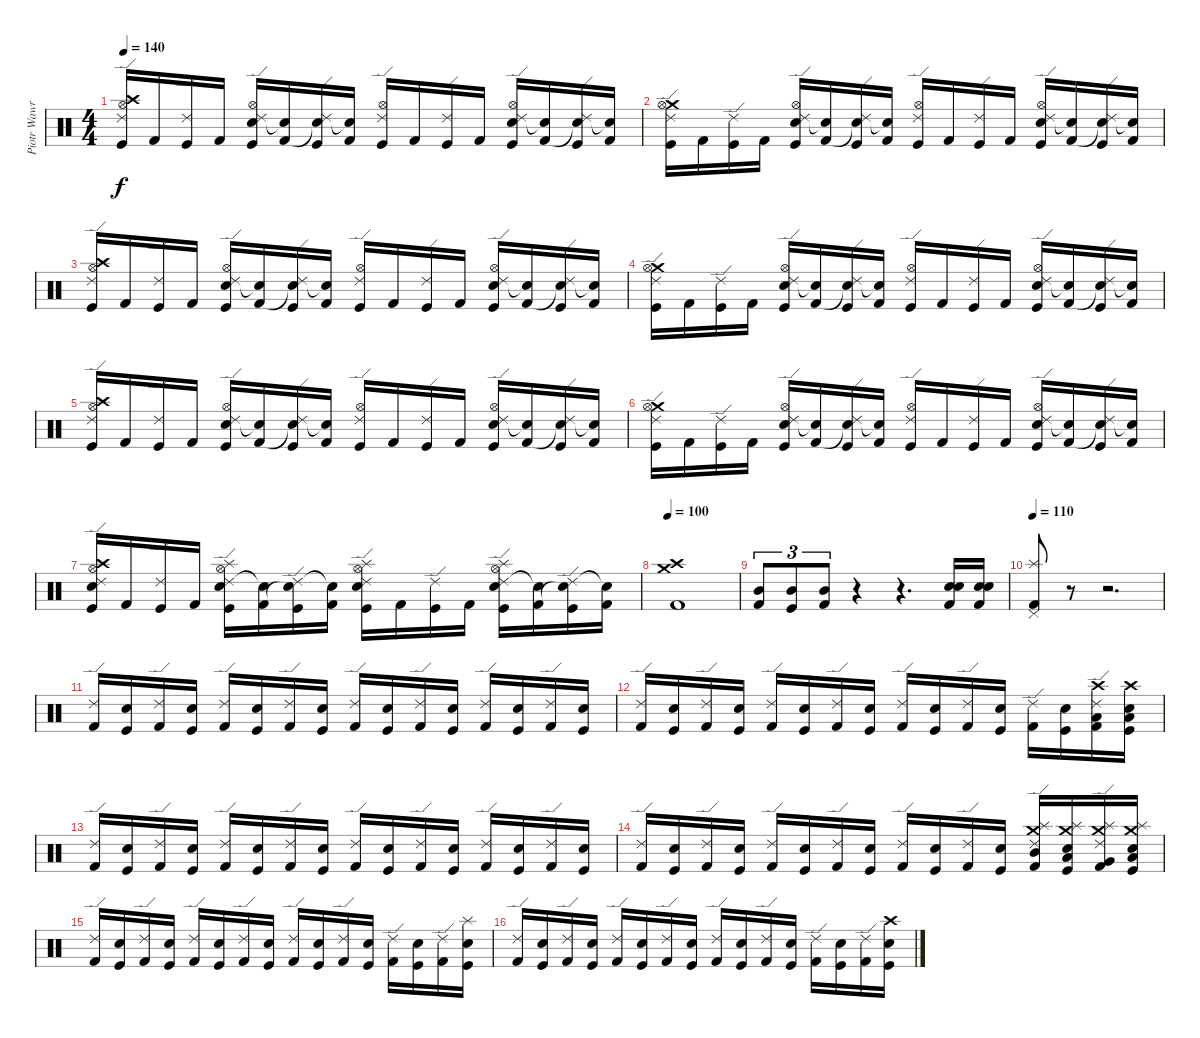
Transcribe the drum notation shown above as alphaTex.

\track ("Piotr Wawrzeniuk" "Piotr Wawr") {instrument percussion}
\staff {score}
\articulation defaults
\ts (4 4)
\tempo 140
\clef neutral
\ks c
("Ride (edge) 2" "Crash high (hit)" "Hi-Hat (open)" "Kick (hit)").16{dy f} "Kick (hit) 2".16 ("Ride (edge) 2" "Kick (hit)").16 "Kick (hit) 2".16 ("Ride (edge) 2" "Electric Snare (hit)" "Hi-Hat (open)" "Kick (hit)").16 ("Snare (hit)"{t} "Kick (hit) 2").16 ("Ride (edge) 2" "Electric Snare (hit)"{t} "Kick (hit)").16 ("Snare (hit)"{t} "Kick (hit) 2").16 ("Ride (edge) 2" "Hi-Hat (open)" "Kick (hit)").16 "Kick (hit) 2".16 ("Ride (edge) 2" "Kick (hit)").16 "Kick (hit) 2".16 ("Ride (edge) 2" "Electric Snare (hit)" "Hi-Hat (open)" "Kick (hit)").16 ("Snare (hit)"{t} "Kick (hit) 2").16 ("Ride (edge) 2" "Electric Snare (hit)"{t} "Kick (hit)").16 ("Snare (hit)"{t} "Kick (hit) 2").16 |
("Ride (edge) 2" "Crash medium (hit)" "Hi-Hat (open)" "Kick (hit)").16 "Kick (hit) 2".16 ("Ride (edge) 2" "Kick (hit)").16 "Kick (hit) 2".16 ("Ride (edge) 2" "Electric Snare (hit)" "Hi-Hat (open)" "Kick (hit)").16 ("Snare (hit)"{t} "Kick (hit) 2").16 ("Ride (edge) 2" "Electric Snare (hit)"{t} "Kick (hit)").16 ("Snare (hit)"{t} "Kick (hit) 2").16 ("Ride (edge) 2" "Hi-Hat (open)" "Kick (hit)").16 "Kick (hit) 2".16 ("Ride (edge) 2" "Kick (hit)").16 "Kick (hit) 2".16 ("Ride (edge) 2" "Electric Snare (hit)" "Hi-Hat (open)" "Kick (hit)").16 ("Snare (hit)"{t} "Kick (hit) 2").16 ("Ride (edge) 2" "Electric Snare (hit)"{t} "Kick (hit)").16 ("Snare (hit)"{t} "Kick (hit) 2").16 |
("Ride (edge) 2" "Crash high (hit)" "Hi-Hat (open)" "Kick (hit)").16 "Kick (hit) 2".16 ("Ride (edge) 2" "Kick (hit)").16 "Kick (hit) 2".16 ("Ride (edge) 2" "Electric Snare (hit)" "Hi-Hat (open)" "Kick (hit)").16 ("Snare (hit)"{t} "Kick (hit) 2").16 ("Ride (edge) 2" "Electric Snare (hit)"{t} "Kick (hit)").16 ("Snare (hit)"{t} "Kick (hit) 2").16 ("Ride (edge) 2" "Hi-Hat (open)" "Kick (hit)").16 "Kick (hit) 2".16 ("Ride (edge) 2" "Kick (hit)").16 "Kick (hit) 2".16 ("Ride (edge) 2" "Electric Snare (hit)" "Hi-Hat (open)" "Kick (hit)").16 ("Snare (hit)"{t} "Kick (hit) 2").16 ("Ride (edge) 2" "Electric Snare (hit)"{t} "Kick (hit)").16 ("Snare (hit)"{t} "Kick (hit) 2").16 |
("Ride (edge) 2" "Crash medium (hit)" "Hi-Hat (open)" "Kick (hit)").16 "Kick (hit) 2".16 ("Ride (edge) 2" "Kick (hit)").16 "Kick (hit) 2".16 ("Ride (edge) 2" "Electric Snare (hit)" "Hi-Hat (open)" "Kick (hit)").16 ("Snare (hit)"{t} "Kick (hit) 2").16 ("Ride (edge) 2" "Electric Snare (hit)"{t} "Kick (hit)").16 ("Snare (hit)"{t} "Kick (hit) 2").16 ("Ride (edge) 2" "Hi-Hat (open)" "Kick (hit)").16 "Kick (hit) 2".16 ("Ride (edge) 2" "Kick (hit)").16 "Kick (hit) 2".16 ("Ride (edge) 2" "Electric Snare (hit)" "Hi-Hat (open)" "Kick (hit)").16 ("Snare (hit)"{t} "Kick (hit) 2").16 ("Ride (edge) 2" "Electric Snare (hit)"{t} "Kick (hit)").16 ("Snare (hit)"{t} "Kick (hit) 2").16 |
("Ride (edge) 2" "Crash high (hit)" "Hi-Hat (open)" "Kick (hit)").16 "Kick (hit) 2".16 ("Ride (edge) 2" "Kick (hit)").16 "Kick (hit) 2".16 ("Ride (edge) 2" "Electric Snare (hit)" "Hi-Hat (open)" "Kick (hit)").16 ("Snare (hit)"{t} "Kick (hit) 2").16 ("Ride (edge) 2" "Electric Snare (hit)"{t} "Kick (hit)").16 ("Snare (hit)"{t} "Kick (hit) 2").16 ("Ride (edge) 2" "Hi-Hat (open)" "Kick (hit)").16 "Kick (hit) 2".16 ("Ride (edge) 2" "Kick (hit)").16 "Kick (hit) 2".16 ("Ride (edge) 2" "Electric Snare (hit)" "Hi-Hat (open)" "Kick (hit)").16 ("Snare (hit)"{t} "Kick (hit) 2").16 ("Ride (edge) 2" "Electric Snare (hit)"{t} "Kick (hit)").16 ("Snare (hit)"{t} "Kick (hit) 2").16 |
("Ride (edge) 2" "Crash medium (hit)" "Hi-Hat (open)" "Kick (hit)").16 "Kick (hit) 2".16 ("Ride (edge) 2" "Kick (hit)").16 "Kick (hit) 2".16 ("Ride (edge) 2" "Electric Snare (hit)" "Hi-Hat (open)" "Kick (hit)").16 ("Snare (hit)"{t} "Kick (hit) 2").16 ("Ride (edge) 2" "Electric Snare (hit)"{t} "Kick (hit)").16 ("Snare (hit)"{t} "Kick (hit) 2").16 ("Ride (edge) 2" "Hi-Hat (open)" "Kick (hit)").16 "Kick (hit) 2".16 ("Ride (edge) 2" "Kick (hit)").16 "Kick (hit) 2".16 ("Ride (edge) 2" "Electric Snare (hit)" "Hi-Hat (open)" "Kick (hit)").16 ("Snare (hit)"{t} "Kick (hit) 2").16 ("Ride (edge) 2" "Electric Snare (hit)"{t} "Kick (hit)").16 ("Snare (hit)"{t} "Kick (hit) 2").16 |
("Ride (edge) 2" "Electric Snare (hit)" "Hi-Hat (open)" "Crash high (hit)" "Kick (hit)").16 "Kick (hit) 2".16 ("Ride (edge) 2" "Kick (hit)").16 "Kick (hit) 2".16 ("Ride (edge) 2" "Electric Snare (hit)" "Hi-Hat (open)" "Splash (hit)" "Kick (hit)").16 ("Snare (hit)"{t} "Kick (hit) 2").16 ("Ride (edge) 2" "Electric Snare (hit)"{t} "Kick (hit)").16 ("Snare (hit)"{t} "Kick (hit) 2").16 ("Ride (edge) 2" "Electric Snare (hit)" "Hi-Hat (open)" "Splash (hit)" "Kick (hit)").16 "Kick (hit) 2".16 ("Ride (edge) 2" "Kick (hit)").16 "Kick (hit) 2".16 ("Ride (edge) 2" "Electric Snare (hit)" "Hi-Hat (open)" "Splash (hit)" "Kick (hit)").16 ("Snare (hit)"{t} "Kick (hit) 2").16 ("Ride (edge) 2" "Electric Snare (hit)"{t} "Kick (hit)").16 ("Snare (hit)"{t} "Kick (hit) 2").16 |
\tempo 100
("Crash high (hit)" "Crash medium (hit)" "Kick (hit) 2").1 |
("Mid Tom (hit)" "Kick (hit) 2").8{tu (3 2)} ("Mid Tom (hit)" "Kick (hit)").8{tu (3 2)} ("Mid Tom (hit)" "Kick (hit) 2").8{tu (3 2)} r.4 r.4{d} ("Electric Snare (hit)" "Snare (hit) 2" "Kick (hit) 2").16 ("Electric Snare (hit)" "Snare (hit) 2" "Kick (hit) 2").16 |
\tempo 110
("Splash (hit)" "Pedal Hi-Hat (hit)" "Kick (hit) 2").8 r.8 r.2{d} |
("Ride (edge) 2" "Kick (hit) 2").16 ("Electric Snare (hit)" "Kick (hit)").16 ("Ride (edge) 2" "Kick (hit) 2").16 ("Electric Snare (hit)" "Kick (hit)").16 ("Ride (edge) 2" "Kick (hit) 2").16 ("Electric Snare (hit)" "Kick (hit)").16 ("Ride (edge) 2" "Kick (hit) 2").16 ("Electric Snare (hit)" "Kick (hit)").16 ("Ride (edge) 2" "Kick (hit) 2").16 ("Electric Snare (hit)" "Kick (hit)").16 ("Ride (edge) 2" "Kick (hit) 2").16 ("Electric Snare (hit)" "Kick (hit)").16 ("Ride (edge) 2" "Kick (hit) 2").16 ("Electric Snare (hit)" "Kick (hit)").16 ("Ride (edge) 2" "Kick (hit) 2").16 ("Electric Snare (hit)" "Kick (hit)").16 |
("Ride (edge) 2" "Kick (hit) 2").16 ("Electric Snare (hit)" "Kick (hit)").16 ("Ride (edge) 2" "Kick (hit) 2").16 ("Electric Snare (hit)" "Kick (hit)").16 ("Ride (edge) 2" "Kick (hit) 2").16 ("Electric Snare (hit)" "Kick (hit)").16 ("Ride (edge) 2" "Kick (hit) 2").16 ("Electric Snare (hit)" "Kick (hit)").16 ("Ride (edge) 2" "Kick (hit) 2").16 ("Electric Snare (hit)" "Kick (hit)").16 ("Ride (edge) 2" "Kick (hit) 2").16 ("Electric Snare (hit)" "Kick (hit)").16 ("Ride (edge) 2" "Kick (hit) 2").16 ("Electric Snare (hit)" "Kick (hit)").16 ("Low Tom (hit)" "Ride (edge) 2" "Crash high (hit)" "Kick (hit) 2").16 ("Electric Snare (hit)" "Low Floor Tom (hit)" "Crash high (hit)" "Kick (hit)").16 |
("Ride (edge) 2" "Kick (hit) 2").16 ("Electric Snare (hit)" "Kick (hit)").16 ("Ride (edge) 2" "Kick (hit) 2").16 ("Electric Snare (hit)" "Kick (hit)").16 ("Ride (edge) 2" "Kick (hit) 2").16 ("Electric Snare (hit)" "Kick (hit)").16 ("Ride (edge) 2" "Kick (hit) 2").16 ("Electric Snare (hit)" "Kick (hit)").16 ("Ride (edge) 2" "Kick (hit) 2").16 ("Electric Snare (hit)" "Kick (hit)").16 ("Ride (edge) 2" "Kick (hit) 2").16 ("Electric Snare (hit)" "Kick (hit)").16 ("Ride (edge) 2" "Kick (hit) 2").16 ("Electric Snare (hit)" "Kick (hit)").16 ("Ride (edge) 2" "Kick (hit) 2").16 ("Electric Snare (hit)" "Kick (hit)").16 |
("Ride (edge) 2" "Kick (hit) 2").16 ("Electric Snare (hit)" "Kick (hit)").16 ("Ride (edge) 2" "Kick (hit) 2").16 ("Electric Snare (hit)" "Kick (hit)").16 ("Ride (edge) 2" "Kick (hit) 2").16 ("Electric Snare (hit)" "Kick (hit)").16 ("Ride (edge) 2" "Kick (hit) 2").16 ("Electric Snare (hit)" "Kick (hit)").16 ("Ride (edge) 2" "Kick (hit) 2").16 ("Electric Snare (hit)" "Kick (hit)").16 ("Ride (edge) 2" "Kick (hit) 2").16 ("Electric Snare (hit)" "Kick (hit)").16 ("Crash medium (hit)" "Mid Tom (hit)" "Ride (edge) 2" "Splash (hit)" "Kick (hit) 2").16 ("Crash medium (hit)" "Electric Snare (hit)" "Low Tom (hit)" "Splash (hit)" "Kick (hit)").16 ("Crash medium (hit)" "Very Low Tom (hit)" "Ride (edge) 2" "Splash (hit)" "Kick (hit) 2").16 ("Crash medium (hit)" "Electric Snare (hit)" "Low Floor Tom (hit)" "Splash (hit)" "Kick (hit)").16 |
("Ride (edge) 2" "Kick (hit) 2").16 ("Electric Snare (hit)" "Kick (hit)").16 ("Ride (edge) 2" "Kick (hit) 2").16 ("Electric Snare (hit)" "Kick (hit)").16 ("Ride (edge) 2" "Kick (hit) 2").16 ("Electric Snare (hit)" "Kick (hit)").16 ("Ride (edge) 2" "Kick (hit) 2").16 ("Electric Snare (hit)" "Kick (hit)").16 ("Ride (edge) 2" "Kick (hit) 2").16 ("Electric Snare (hit)" "Kick (hit)").16 ("Ride (edge) 2" "Kick (hit) 2").16 ("Electric Snare (hit)" "Kick (hit)").16 ("Ride (edge) 2" "Kick (hit) 2").16 ("Electric Snare (hit)" "Kick (hit)").16 ("Ride (edge) 2" "Kick (hit) 2").16 ("Electric Snare (hit)" "Splash (hit)" "Kick (hit)").16 |
("Ride (edge) 2" "Kick (hit) 2").16 ("Electric Snare (hit)" "Kick (hit)").16 ("Ride (edge) 2" "Kick (hit) 2").16 ("Electric Snare (hit)" "Kick (hit)").16 ("Ride (edge) 2" "Kick (hit) 2").16 ("Electric Snare (hit)" "Kick (hit)").16 ("Ride (edge) 2" "Kick (hit) 2").16 ("Electric Snare (hit)" "Kick (hit)").16 ("Ride (edge) 2" "Kick (hit) 2").16 ("Electric Snare (hit)" "Kick (hit)").16 ("Ride (edge) 2" "Kick (hit) 2").16 ("Electric Snare (hit)" "Kick (hit)").16 ("Ride (edge) 2" "Kick (hit) 2").16 ("Electric Snare (hit)" "Kick (hit)").16 ("Ride (edge) 2" "Kick (hit) 2").16 ("Crash high (hit)" "Electric Snare (hit)" "Kick (hit)").16
